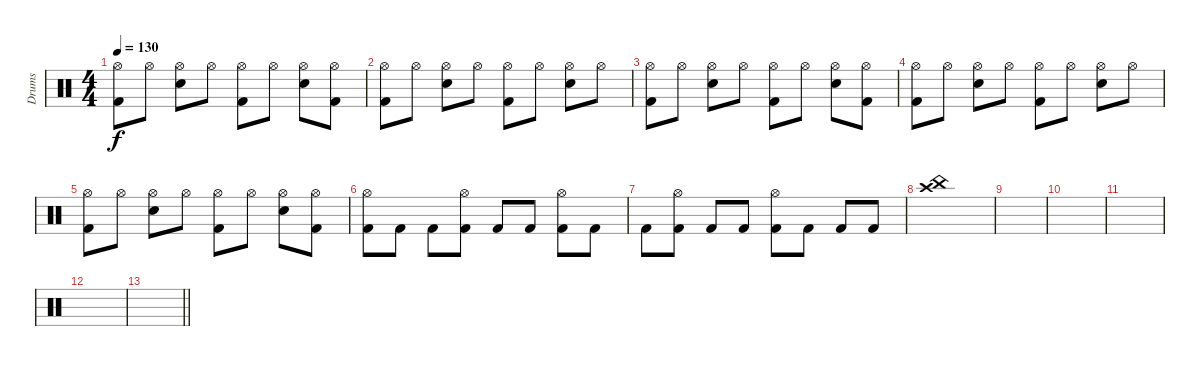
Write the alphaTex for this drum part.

\track ("Drums" "Drums") {instrument percussion}
\staff {score}
\articulation defaults
\ts (4 4)
\tempo 130
\clef neutral
\ks c
("Hi-Hat (open)" "Kick (hit) 2").8{dy f} "Hi-Hat (open)".8 ("Hi-Hat (open)" "Snare (hit) 2").8 "Hi-Hat (open)".8 ("Hi-Hat (open)" "Kick (hit) 2").8 "Hi-Hat (open)".8 ("Hi-Hat (open)" "Snare (hit) 2").8 ("Hi-Hat (open)" "Kick (hit) 2").8 |
("Hi-Hat (open)" "Kick (hit) 2").8 "Hi-Hat (open)".8 ("Hi-Hat (open)" "Snare (hit) 2").8 "Hi-Hat (open)".8 ("Hi-Hat (open)" "Kick (hit) 2").8 "Hi-Hat (open)".8 ("Hi-Hat (open)" "Snare (hit) 2").8 "Hi-Hat (open)".8 |
("Hi-Hat (open)" "Kick (hit) 2").8 "Hi-Hat (open)".8 ("Hi-Hat (open)" "Snare (hit) 2").8 "Hi-Hat (open)".8 ("Hi-Hat (open)" "Kick (hit) 2").8 "Hi-Hat (open)".8 ("Hi-Hat (open)" "Snare (hit) 2").8 ("Hi-Hat (open)" "Kick (hit) 2").8 |
("Hi-Hat (open)" "Kick (hit) 2").8 "Hi-Hat (open)".8 ("Hi-Hat (open)" "Snare (hit) 2").8 "Hi-Hat (open)".8 ("Hi-Hat (open)" "Kick (hit) 2").8 "Hi-Hat (open)".8 ("Hi-Hat (open)" "Snare (hit) 2").8 "Hi-Hat (open)".8 |
("Hi-Hat (open)" "Kick (hit) 2").8 "Hi-Hat (open)".8 ("Hi-Hat (open)" "Snare (hit) 2").8 "Hi-Hat (open)".8 ("Hi-Hat (open)" "Kick (hit) 2").8 "Hi-Hat (open)".8 ("Hi-Hat (open)" "Snare (hit) 2").8 ("Hi-Hat (open)" "Kick (hit) 2").8 |
("Hi-Hat (open)" "Kick (hit) 2").8 "Kick (hit) 2".8 "Kick (hit) 2".8 ("Hi-Hat (open)" "Kick (hit) 2").8 "Kick (hit) 2".8 "Kick (hit) 2".8 ("Hi-Hat (open)" "Kick (hit) 2").8 "Kick (hit) 2".8 |
"Kick (hit) 2".8 ("Hi-Hat (open)" "Kick (hit) 2").8 "Kick (hit) 2".8 "Kick (hit) 2".8 ("Hi-Hat (open)" "Kick (hit) 2").8 "Kick (hit) 2".8 "Kick (hit) 2".8 "Kick (hit) 2".8 |
("China (hit)" "Crash high (hit)").1 |
|
|
|
|
\barLineRight lightlight
